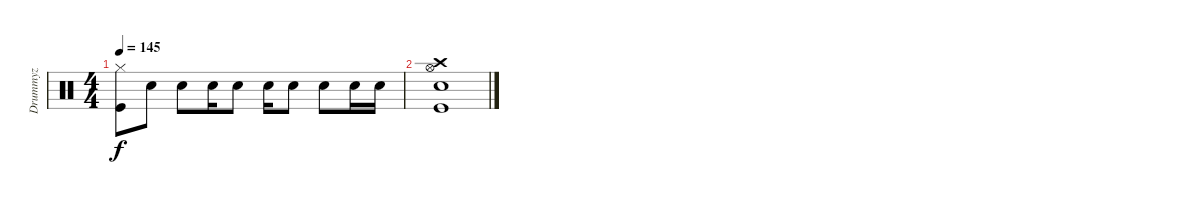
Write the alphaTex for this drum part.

\track ("Drummyz" "Drummyz") {instrument percussion}
\staff {score}
\articulation defaults
\ts (4 4)
\tempo 145
\clef neutral
\ks c
("Kick (hit)" "Hi-Hat (closed)").8{dy f} "Snare (hit) 2".8 "Snare (hit) 2".8 "Snare (hit) 2".16 "Snare (hit) 2".8 "Snare (hit) 2".16 "Snare (hit) 2".8 "Snare (hit) 2".8 "Snare (hit) 2".16 "Snare (hit) 2".16 |
("Kick (hit)" "Snare (hit) 2" "Crash high (hit)" "Hi-Hat (open)").1
